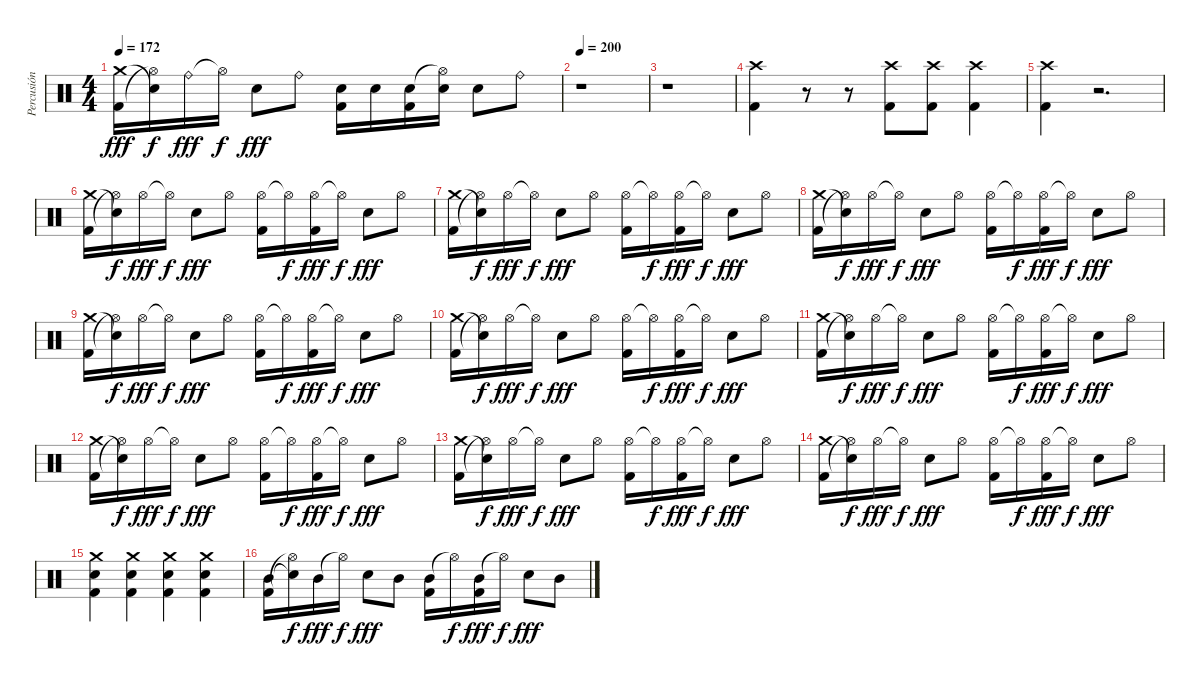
\track ("Percusión" "Percusión") {instrument percussion}
\staff {score}
\articulation defaults
\ts (4 4)
\tempo 172
\clef neutral
\ks c
("Crash medium (hit)" "Kick (hit) 2").16{dy fff} ("Snare (hit)"{t} "Hi-Hat (open)"{t}).16{dy f} "Ride (bell)".16{dy fff} "Hi-Hat (open)"{t}.16{dy f} "Electric Snare (hit)".8{dy fff} "Ride (bell)".8 ("Electric Snare (hit)" "Kick (hit) 2").16 "Electric Snare (hit)".16 ("Electric Snare (hit)" "Kick (hit) 2").16 ("Hi-Hat (open)"{t} "Electric Snare (hit)").16 "Electric Snare (hit)".8 "Ride (bell)".8 |
\tempo 200
r.1 |
r.1 |
("Crash high (hit)" "Kick (hit) 2").4 r.8 r.8 ("Crash high (hit)" "Kick (hit) 2").8 ("Crash high (hit)" "Kick (hit) 2").8 ("Crash high (hit)" "Kick (hit) 2").4 |
("Crash high (hit)" "Kick (hit) 2").4 r.2{d} |
("Crash medium (hit)" "Kick (hit) 2").16 ("Snare (hit)"{t} "Hi-Hat (open)"{t}).16{dy f} "Hi-Hat (open)".16{dy fff} "Hi-Hat (open)"{t}.16{dy f} "Electric Snare (hit)".8{dy fff} "Hi-Hat (open)".8 ("Hi-Hat (open)" "Kick (hit) 2").16 "Hi-Hat (open)"{t}.16{dy f} ("Hi-Hat (open)" "Kick (hit) 2").16{dy fff} "Hi-Hat (open)"{t}.16{dy f} "Electric Snare (hit)".8{dy fff} "Hi-Hat (open)".8 |
("Crash medium (hit)" "Kick (hit) 2").16 ("Snare (hit)"{t} "Hi-Hat (open)"{t}).16{dy f} "Hi-Hat (open)".16{dy fff} "Hi-Hat (open)"{t}.16{dy f} "Electric Snare (hit)".8{dy fff} "Hi-Hat (open)".8 ("Hi-Hat (open)" "Kick (hit) 2").16 "Hi-Hat (open)"{t}.16{dy f} ("Hi-Hat (open)" "Kick (hit) 2").16{dy fff} "Hi-Hat (open)"{t}.16{dy f} "Electric Snare (hit)".8{dy fff} "Hi-Hat (open)".8 |
("Crash medium (hit)" "Kick (hit) 2").16 ("Snare (hit)"{t} "Hi-Hat (open)"{t}).16{dy f} "Hi-Hat (open)".16{dy fff} "Hi-Hat (open)"{t}.16{dy f} "Electric Snare (hit)".8{dy fff} "Hi-Hat (open)".8 ("Hi-Hat (open)" "Kick (hit) 2").16 "Hi-Hat (open)"{t}.16{dy f} ("Hi-Hat (open)" "Kick (hit) 2").16{dy fff} "Hi-Hat (open)"{t}.16{dy f} "Electric Snare (hit)".8{dy fff} "Hi-Hat (open)".8 |
("Crash medium (hit)" "Kick (hit) 2").16 ("Snare (hit)"{t} "Hi-Hat (open)"{t}).16{dy f} "Hi-Hat (open)".16{dy fff} "Hi-Hat (open)"{t}.16{dy f} "Electric Snare (hit)".8{dy fff} "Hi-Hat (open)".8 ("Hi-Hat (open)" "Kick (hit) 2").16 "Hi-Hat (open)"{t}.16{dy f} ("Hi-Hat (open)" "Kick (hit) 2").16{dy fff} "Hi-Hat (open)"{t}.16{dy f} "Electric Snare (hit)".8{dy fff} "Hi-Hat (open)".8 |
("Crash medium (hit)" "Kick (hit) 2").16 ("Snare (hit)"{t} "Hi-Hat (open)"{t}).16{dy f} "Hi-Hat (open)".16{dy fff} "Hi-Hat (open)"{t}.16{dy f} "Electric Snare (hit)".8{dy fff} "Hi-Hat (open)".8 ("Hi-Hat (open)" "Kick (hit) 2").16 "Hi-Hat (open)"{t}.16{dy f} ("Hi-Hat (open)" "Kick (hit) 2").16{dy fff} "Hi-Hat (open)"{t}.16{dy f} "Electric Snare (hit)".8{dy fff} "Hi-Hat (open)".8 |
("Crash medium (hit)" "Kick (hit) 2").16 ("Snare (hit)"{t} "Hi-Hat (open)"{t}).16{dy f} "Hi-Hat (open)".16{dy fff} "Hi-Hat (open)"{t}.16{dy f} "Electric Snare (hit)".8{dy fff} "Hi-Hat (open)".8 ("Hi-Hat (open)" "Kick (hit) 2").16 "Hi-Hat (open)"{t}.16{dy f} ("Hi-Hat (open)" "Kick (hit) 2").16{dy fff} "Hi-Hat (open)"{t}.16{dy f} "Electric Snare (hit)".8{dy fff} "Hi-Hat (open)".8 |
("Crash medium (hit)" "Kick (hit) 2").16 ("Snare (hit)"{t} "Hi-Hat (open)"{t}).16{dy f} "Hi-Hat (open)".16{dy fff} "Hi-Hat (open)"{t}.16{dy f} "Electric Snare (hit)".8{dy fff} "Hi-Hat (open)".8 ("Hi-Hat (open)" "Kick (hit) 2").16 "Hi-Hat (open)"{t}.16{dy f} ("Hi-Hat (open)" "Kick (hit) 2").16{dy fff} "Hi-Hat (open)"{t}.16{dy f} "Electric Snare (hit)".8{dy fff} "Hi-Hat (open)".8 |
("Crash medium (hit)" "Kick (hit) 2").16 ("Snare (hit)"{t} "Hi-Hat (open)"{t}).16{dy f} "Hi-Hat (open)".16{dy fff} "Hi-Hat (open)"{t}.16{dy f} "Electric Snare (hit)".8{dy fff} "Hi-Hat (open)".8 ("Hi-Hat (open)" "Kick (hit) 2").16 "Hi-Hat (open)"{t}.16{dy f} ("Hi-Hat (open)" "Kick (hit) 2").16{dy fff} "Hi-Hat (open)"{t}.16{dy f} "Electric Snare (hit)".8{dy fff} "Hi-Hat (open)".8 |
("Crash medium (hit)" "Kick (hit) 2").16 ("Snare (hit)"{t} "Hi-Hat (open)"{t}).16{dy f} "Hi-Hat (open)".16{dy fff} "Hi-Hat (open)"{t}.16{dy f} "Electric Snare (hit)".8{dy fff} "Hi-Hat (open)".8 ("Hi-Hat (open)" "Kick (hit) 2").16 "Hi-Hat (open)"{t}.16{dy f} ("Hi-Hat (open)" "Kick (hit) 2").16{dy fff} "Hi-Hat (open)"{t}.16{dy f} "Electric Snare (hit)".8{dy fff} "Hi-Hat (open)".8 |
("Crash medium (hit)" "Electric Snare (hit)" "Kick (hit) 2").4 ("Crash medium (hit)" "Electric Snare (hit)" "Kick (hit) 2").4 ("Crash medium (hit)" "Electric Snare (hit)" "Kick (hit) 2").4 ("Crash medium (hit)" "Electric Snare (hit)" "Kick (hit) 2").4 |
("Mid Tom (hit)" "Kick (hit) 2").16 ("Snare (hit)"{t} "Hi-Hat (open)"{t}).16{dy f} "Mid Tom (hit)".16{dy fff} "Hi-Hat (open)"{t}.16{dy f} "Electric Snare (hit)".8{dy fff} "Mid Tom (hit)".8 ("Mid Tom (hit)" "Kick (hit) 2").16 "Hi-Hat (open)"{t}.16{dy f} ("Mid Tom (hit)" "Kick (hit) 2").16{dy fff} "Hi-Hat (open)"{t}.16{dy f} "Electric Snare (hit)".8{dy fff} "Mid Tom (hit)".8
